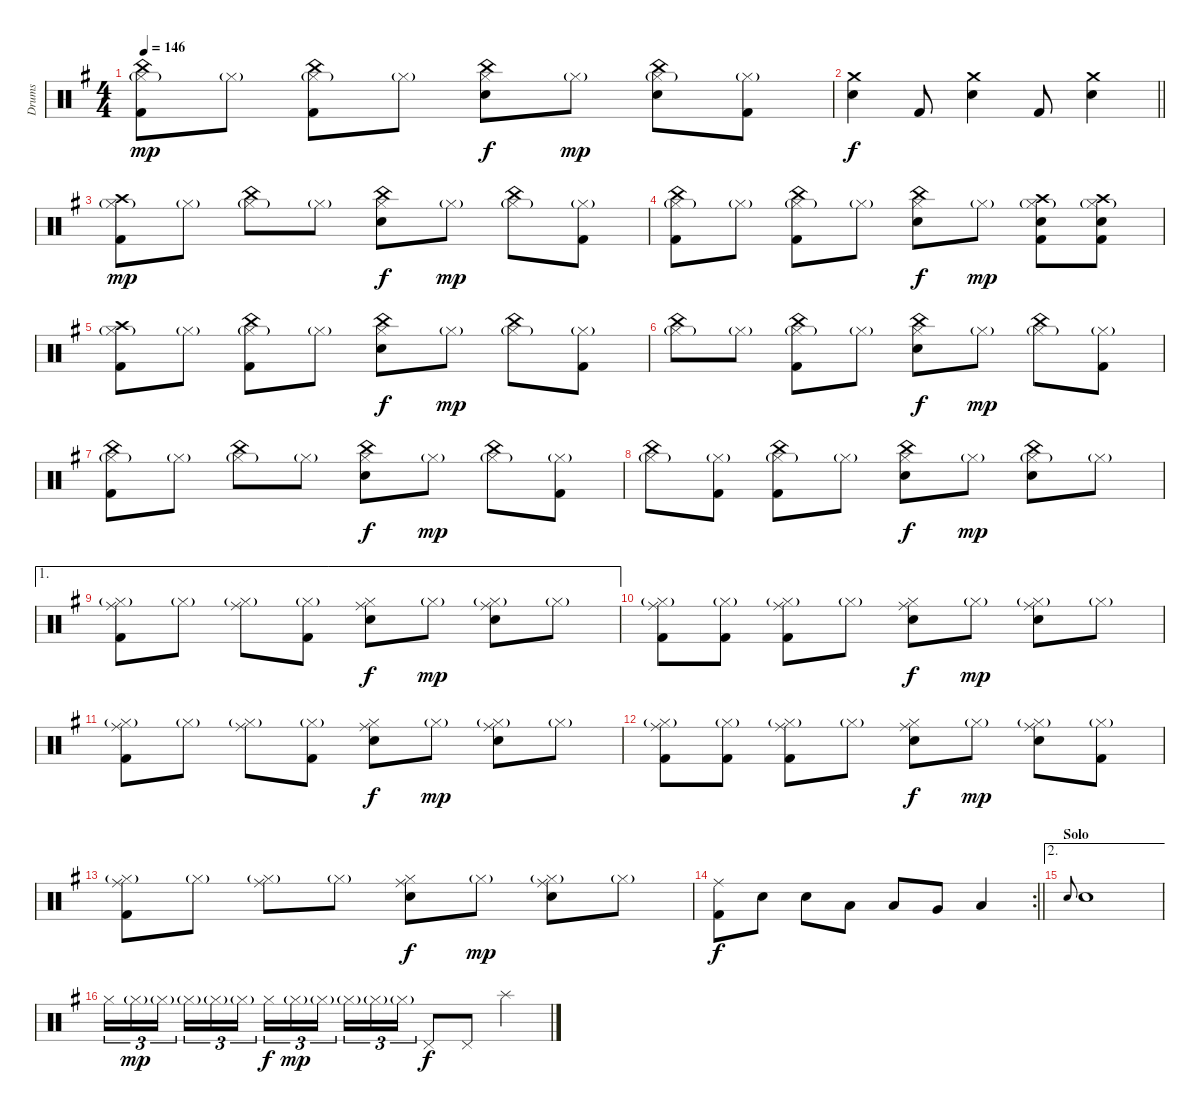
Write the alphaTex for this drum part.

\track ("Drums" "Drums") {instrument percussion}
\staff {score}
\articulation defaults
\ts (4 4)
\tempo 146
\clef neutral
\ks eminor
("China (hit)" "Hi-Hat (closed)"{g} "Kick (hit) 2").8{dy mp} "Hi-Hat (closed)"{g}.8 ("China (hit)" "Hi-Hat (closed)"{g} "Kick (hit) 2").8 "Hi-Hat (closed)"{g}.8 ("China (hit)" "Hi-Hat (closed)" "Snare (hit) 2").8{dy f} "Hi-Hat (closed)"{g}.8{dy mp} ("China (hit)" "Hi-Hat (closed)"{g} "Snare (hit) 2").8 ("Hi-Hat (closed)"{g} "Kick (hit) 2").8 |
\barLineRight lightlight
("Crash medium (hit)" "Snare (hit) 2").4{dy f} "Kick (hit) 2".8 ("Crash medium (hit)" "Snare (hit) 2").4 "Kick (hit) 2".8 ("Crash medium (hit)" "Snare (hit) 2").4 |
("Crash high (hit)" "Hi-Hat (closed)"{g} "Kick (hit) 2").8{dy mp} "Hi-Hat (closed)"{g}.8 ("China (hit)" "Hi-Hat (closed)"{g}).8 "Hi-Hat (closed)"{g}.8 ("China (hit)" "Hi-Hat (closed)" "Snare (hit) 2").8{dy f} "Hi-Hat (closed)"{g}.8{dy mp} ("China (hit)" "Hi-Hat (closed)"{g}).8 ("Hi-Hat (closed)"{g} "Kick (hit) 2").8 |
("China (hit)" "Hi-Hat (closed)"{g} "Kick (hit) 2").8 "Hi-Hat (closed)"{g}.8 ("China (hit)" "Hi-Hat (closed)"{g} "Kick (hit) 2").8 "Hi-Hat (closed)"{g}.8 ("China (hit)" "Hi-Hat (closed)" "Snare (hit) 2").8{dy f} "Hi-Hat (closed)"{g}.8{dy mp} ("Crash high (hit)" "Hi-Hat (closed)"{g} "Snare (hit) 2" "Kick (hit) 2").8 ("Crash high (hit)" "Hi-Hat (closed)"{g} "Snare (hit) 2" "Kick (hit) 2").8 |
("Crash high (hit)" "Hi-Hat (closed)"{g} "Kick (hit) 2").8 "Hi-Hat (closed)"{g}.8 ("China (hit)" "Hi-Hat (closed)"{g} "Kick (hit) 2").8 "Hi-Hat (closed)"{g}.8 ("China (hit)" "Hi-Hat (closed)" "Snare (hit) 2").8{dy f} "Hi-Hat (closed)"{g}.8{dy mp} ("China (hit)" "Hi-Hat (closed)"{g}).8 ("Hi-Hat (closed)"{g} "Kick (hit) 2").8 |
("China (hit)" "Hi-Hat (closed)"{g}).8 "Hi-Hat (closed)"{g}.8 ("China (hit)" "Hi-Hat (closed)"{g} "Kick (hit) 2").8 "Hi-Hat (closed)"{g}.8 ("China (hit)" "Hi-Hat (closed)" "Snare (hit) 2").8{dy f} "Hi-Hat (closed)"{g}.8{dy mp} ("China (hit)" "Hi-Hat (closed)"{g}).8 ("Hi-Hat (closed)"{g} "Kick (hit) 2").8 |
("China (hit)" "Hi-Hat (closed)"{g} "Kick (hit) 2").8 "Hi-Hat (closed)"{g}.8 ("China (hit)" "Hi-Hat (closed)"{g}).8 "Hi-Hat (closed)"{g}.8 ("China (hit)" "Hi-Hat (closed)" "Snare (hit) 2").8{dy f} "Hi-Hat (closed)"{g}.8{dy mp} ("China (hit)" "Hi-Hat (closed)"{g}).8 ("Hi-Hat (closed)"{g} "Kick (hit) 2").8 |
("China (hit)" "Hi-Hat (closed)"{g}).8 ("Hi-Hat (closed)"{g} "Kick (hit) 2").8 ("China (hit)" "Hi-Hat (closed)"{g} "Kick (hit) 2").8 "Hi-Hat (closed)"{g}.8 ("China (hit)" "Hi-Hat (closed)" "Snare (hit) 2").8{dy f} "Hi-Hat (closed)"{g}.8{dy mp} ("China (hit)" "Hi-Hat (closed)"{g} "Snare (hit) 2").8 "Hi-Hat (closed)"{g}.8 |
\ae 1
("Ride (middle)" "Hi-Hat (closed)"{g} "Kick (hit) 2").8 "Hi-Hat (closed)"{g}.8 ("Ride (middle)" "Hi-Hat (closed)"{g}).8 ("Hi-Hat (closed)"{g} "Kick (hit) 2").8 ("Ride (middle)" "Hi-Hat (closed)" "Electric Snare (hit)").8{dy f} "Hi-Hat (closed)"{g}.8{dy mp} ("Ride (middle)" "Hi-Hat (closed)"{g} "Electric Snare (hit)").8 "Hi-Hat (closed)"{g}.8 |
("Ride (middle)" "Hi-Hat (closed)"{g} "Kick (hit) 2").8 ("Hi-Hat (closed)"{g} "Kick (hit) 2").8 ("Ride (middle)" "Hi-Hat (closed)"{g} "Kick (hit) 2").8 "Hi-Hat (closed)"{g}.8 ("Ride (middle)" "Hi-Hat (closed)" "Electric Snare (hit)").8{dy f} "Hi-Hat (closed)"{g}.8{dy mp} ("Ride (middle)" "Hi-Hat (closed)"{g} "Electric Snare (hit)").8 "Hi-Hat (closed)"{g}.8 |
("Ride (middle)" "Hi-Hat (closed)"{g} "Kick (hit) 2").8 "Hi-Hat (closed)"{g}.8 ("Ride (middle)" "Hi-Hat (closed)"{g}).8 ("Hi-Hat (closed)"{g} "Kick (hit) 2").8 ("Ride (middle)" "Hi-Hat (closed)" "Electric Snare (hit)").8{dy f} "Hi-Hat (closed)"{g}.8{dy mp} ("Ride (middle)" "Hi-Hat (closed)"{g} "Electric Snare (hit)").8 "Hi-Hat (closed)"{g}.8 |
("Ride (middle)" "Hi-Hat (closed)"{g} "Kick (hit) 2").8 ("Hi-Hat (closed)"{g} "Kick (hit) 2").8 ("Ride (middle)" "Hi-Hat (closed)"{g} "Kick (hit) 2").8 "Hi-Hat (closed)"{g}.8 ("Ride (middle)" "Hi-Hat (closed)" "Electric Snare (hit)").8{dy f} "Hi-Hat (closed)"{g}.8{dy mp} ("Ride (middle)" "Hi-Hat (closed)"{g} "Electric Snare (hit)").8 ("Hi-Hat (closed)"{g} "Kick (hit) 2").8 |
("Ride (middle)" "Hi-Hat (closed)"{g} "Kick (hit) 2").8 "Hi-Hat (closed)"{g}.8 ("Ride (middle)" "Hi-Hat (closed)"{g}).8 "Hi-Hat (closed)"{g}.8 ("Ride (middle)" "Hi-Hat (closed)" "Electric Snare (hit)").8{dy f} "Hi-Hat (closed)"{g}.8{dy mp} ("Ride (middle)" "Hi-Hat (closed)"{g} "Electric Snare (hit)").8 "Hi-Hat (closed)"{g}.8 |
\rc 2
\barLineRight lightlight
("Ride (middle)" "Kick (hit) 2").8{dy f} "Snare (hit) 2".8 "Snare (hit) 2".8 "Low Tom (hit)".8 "Low Tom (hit)".8 "Very Low Tom (hit)".8 "Low Floor Tom (hit)".4 |
\ae 2
\section ("" "Solo")
"Snare (hit) 2".8{gr onbeat} "Snare (hit) 2".1 |
"Hi-Hat (closed)".16{tu (3 2)} "Hi-Hat (closed)"{g}.16{tu (3 2) dy mp} "Hi-Hat (closed)"{g}.16{tu (3 2) beam splitsecondary} "Hi-Hat (closed)"{g}.16{tu (3 2)} "Hi-Hat (closed)"{g}.16{tu (3 2)} "Hi-Hat (closed)"{g}.16{tu (3 2)} "Hi-Hat (closed)".16{tu (3 2) dy f} "Hi-Hat (closed)"{g}.16{tu (3 2) dy mp} "Hi-Hat (closed)"{g}.16{tu (3 2) beam splitsecondary} "Hi-Hat (closed)"{g}.16{tu (3 2)} "Hi-Hat (closed)"{g}.16{tu (3 2)} "Hi-Hat (closed)"{g}.16{tu (3 2)} "Pedal Hi-Hat (hit)".8{dy f} "Pedal Hi-Hat (hit)".8 "Splash (hit)".4
